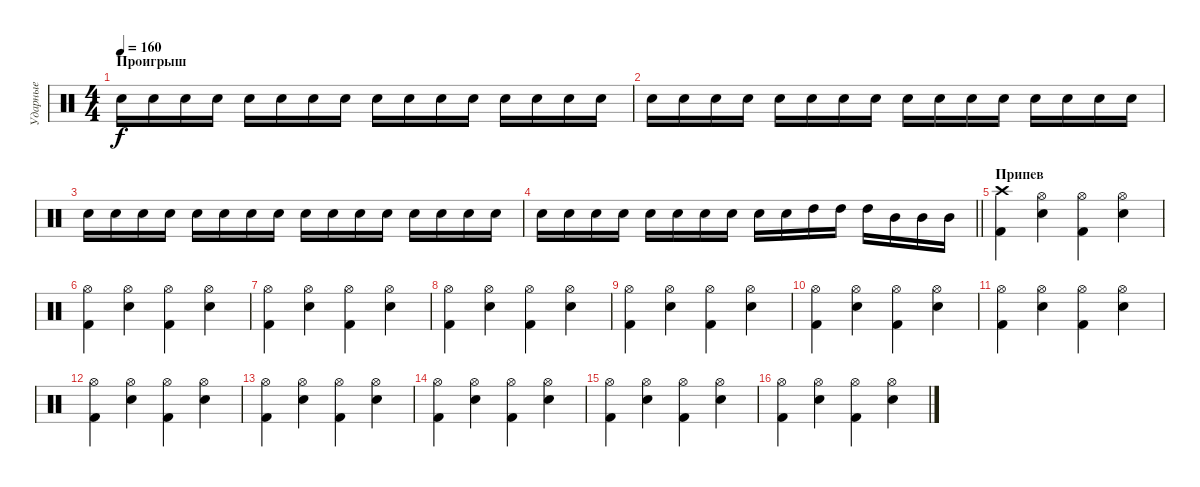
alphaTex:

\track ("Ударные" "Ударные") {instrument percussion}
\staff {score}
\articulation defaults
\ts (4 4)
\section ("" "Проигрыш")
\tempo 160
\clef neutral
\ks c "Electric Snare (hit)".16{dy f} "Electric Snare (hit)".16 "Electric Snare (hit)".16 "Electric Snare (hit)".16 "Electric Snare (hit)".16 "Electric Snare (hit)".16 "Electric Snare (hit)".16 "Electric Snare (hit)".16 "Electric Snare (hit)".16 "Electric Snare (hit)".16 "Electric Snare (hit)".16 "Electric Snare (hit)".16 "Electric Snare (hit)".16 "Electric Snare (hit)".16 "Electric Snare (hit)".16 "Electric Snare (hit)".16
|
"Electric Snare (hit)".16 "Electric Snare (hit)".16 "Electric Snare (hit)".16 "Electric Snare (hit)".16 "Electric Snare (hit)".16 "Electric Snare (hit)".16 "Electric Snare (hit)".16 "Electric Snare (hit)".16 "Electric Snare (hit)".16 "Electric Snare (hit)".16 "Electric Snare (hit)".16 "Electric Snare (hit)".16 "Electric Snare (hit)".16 "Electric Snare (hit)".16 "Electric Snare (hit)".16 "Electric Snare (hit)".16 |
"Electric Snare (hit)".16 "Electric Snare (hit)".16 "Electric Snare (hit)".16 "Electric Snare (hit)".16 "Electric Snare (hit)".16 "Electric Snare (hit)".16 "Electric Snare (hit)".16 "Electric Snare (hit)".16 "Electric Snare (hit)".16 "Electric Snare (hit)".16 "Electric Snare (hit)".16 "Electric Snare (hit)".16 "Electric Snare (hit)".16 "Electric Snare (hit)".16 "Electric Snare (hit)".16 "Electric Snare (hit)".16 |
\barLineRight lightlight "Electric Snare (hit)".16 "Electric Snare (hit)".16 "Electric Snare (hit)".16 "Electric Snare (hit)".16 "Electric Snare (hit)".16 "Electric Snare (hit)".16 "Electric Snare (hit)".16 "Electric Snare (hit)".16 "Electric Snare (hit)".16 "Electric Snare (hit)".16 "High Tom (hit)".16 "High Tom (hit)".16 "High Tom (hit)".16 "Mid Tom (hit)".16 "Mid Tom (hit)".16 "Mid Tom (hit)".16
|
\section ("" "Припев")
("Crash high (hit)" "Kick (hit) 2").4 ("Hi-Hat (open)" "Electric Snare (hit)").4 ("Hi-Hat (open)" "Kick (hit) 2").4 ("Hi-Hat (open)" "Electric Snare (hit)").4 |
("Hi-Hat (open)" "Kick (hit) 2").4 ("Hi-Hat (open)" "Electric Snare (hit)").4 ("Hi-Hat (open)" "Kick (hit) 2").4 ("Hi-Hat (open)" "Electric Snare (hit)").4 |
("Hi-Hat (open)" "Kick (hit) 2").4 ("Hi-Hat (open)" "Electric Snare (hit)").4 ("Hi-Hat (open)" "Kick (hit) 2").4 ("Hi-Hat (open)" "Electric Snare (hit)").4 |
("Hi-Hat (open)" "Kick (hit) 2").4 ("Hi-Hat (open)" "Electric Snare (hit)").4 ("Hi-Hat (open)" "Kick (hit) 2").4 ("Hi-Hat (open)" "Electric Snare (hit)").4 |
("Hi-Hat (open)" "Kick (hit) 2").4 ("Hi-Hat (open)" "Electric Snare (hit)").4 ("Hi-Hat (open)" "Kick (hit) 2").4 ("Hi-Hat (open)" "Electric Snare (hit)").4 |
("Hi-Hat (open)" "Kick (hit) 2").4 ("Hi-Hat (open)" "Electric Snare (hit)").4 ("Hi-Hat (open)" "Kick (hit) 2").4 ("Hi-Hat (open)" "Electric Snare (hit)").4 |
("Hi-Hat (open)" "Kick (hit) 2").4 ("Hi-Hat (open)" "Electric Snare (hit)").4 ("Hi-Hat (open)" "Kick (hit) 2").4 ("Hi-Hat (open)" "Electric Snare (hit)").4 |
("Hi-Hat (open)" "Kick (hit) 2").4 ("Hi-Hat (open)" "Electric Snare (hit)").4 ("Hi-Hat (open)" "Kick (hit) 2").4 ("Hi-Hat (open)" "Electric Snare (hit)").4 |
("Hi-Hat (open)" "Kick (hit) 2").4 ("Hi-Hat (open)" "Electric Snare (hit)").4 ("Hi-Hat (open)" "Kick (hit) 2").4 ("Hi-Hat (open)" "Electric Snare (hit)").4 |
("Hi-Hat (open)" "Kick (hit) 2").4 ("Hi-Hat (open)" "Electric Snare (hit)").4 ("Hi-Hat (open)" "Kick (hit) 2").4 ("Hi-Hat (open)" "Electric Snare (hit)").4 |
("Hi-Hat (open)" "Kick (hit) 2").4 ("Hi-Hat (open)" "Electric Snare (hit)").4 ("Hi-Hat (open)" "Kick (hit) 2").4 ("Hi-Hat (open)" "Electric Snare (hit)").4 |
("Hi-Hat (open)" "Kick (hit) 2").4 ("Hi-Hat (open)" "Electric Snare (hit)").4 ("Hi-Hat (open)" "Kick (hit) 2").4 ("Hi-Hat (open)" "Electric Snare (hit)").4
